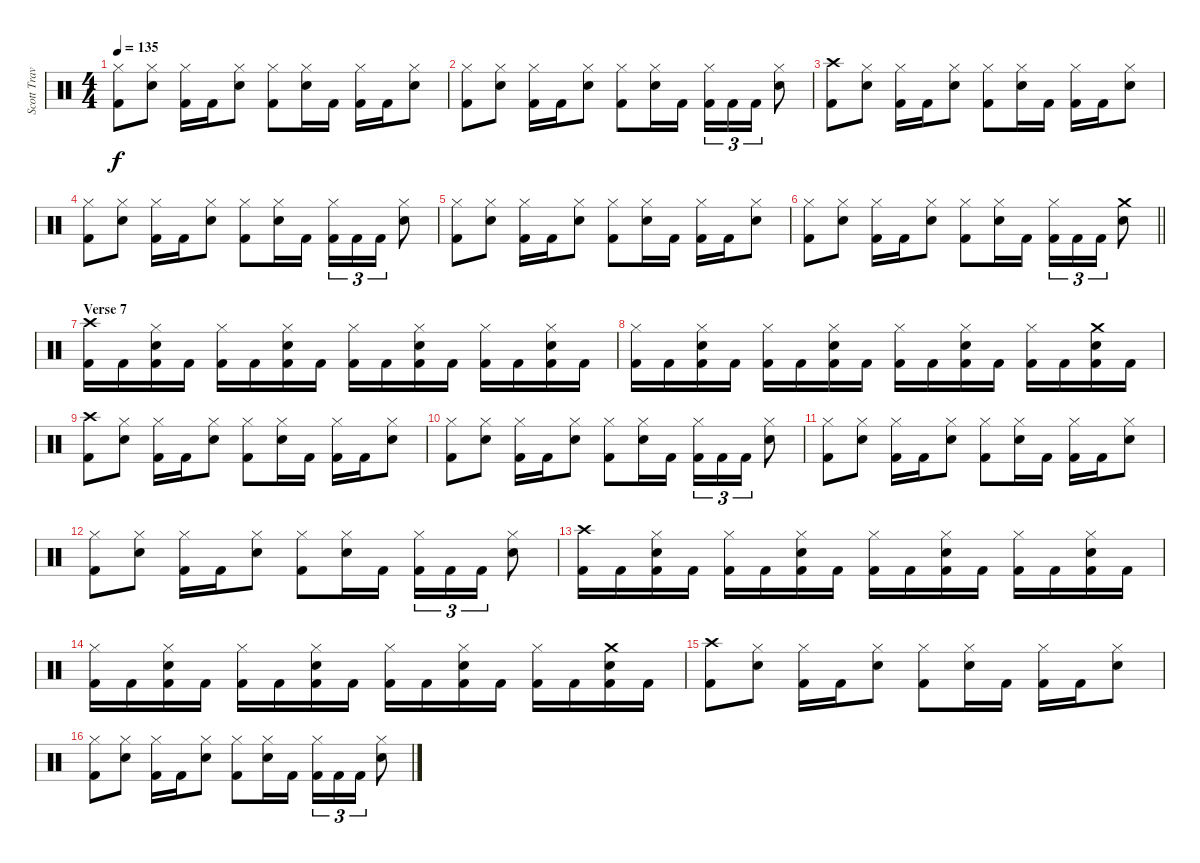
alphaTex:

\track ("Scott Travis" "Scott Trav") {instrument percussion}
\staff {score}
\articulation defaults
\ts (4 4)
\tempo 135
\clef neutral
\ks c
("Hi-Hat (closed)" "Kick (hit) 2").8{dy f} ("Hi-Hat (closed)" "Snare (hit) 2").8 ("Hi-Hat (closed)" "Kick (hit) 2").16 "Kick (hit) 2".16 ("Hi-Hat (closed)" "Snare (hit) 2").8 ("Hi-Hat (closed)" "Kick (hit) 2").8 ("Hi-Hat (closed)" "Snare (hit) 2").16 "Kick (hit) 2".16 ("Hi-Hat (closed)" "Kick (hit) 2").16 "Kick (hit) 2".16 ("Hi-Hat (closed)" "Snare (hit) 2").8 |
("Hi-Hat (closed)" "Kick (hit) 2").8 ("Hi-Hat (closed)" "Snare (hit) 2").8 ("Hi-Hat (closed)" "Kick (hit) 2").16 "Kick (hit) 2".16 ("Hi-Hat (closed)" "Snare (hit) 2").8 ("Hi-Hat (closed)" "Kick (hit) 2").8 ("Hi-Hat (closed)" "Snare (hit) 2").16 "Kick (hit) 2".16 ("Hi-Hat (closed)" "Kick (hit) 2").16{tu (3 2)} "Kick (hit) 2".16{tu (3 2)} "Kick (hit) 2".16{tu (3 2)} ("Hi-Hat (closed)" "Snare (hit) 2").8 |
("Crash high (hit)" "Kick (hit) 2").8 ("Hi-Hat (closed)" "Snare (hit) 2").8 ("Hi-Hat (closed)" "Kick (hit) 2").16 "Kick (hit) 2".16 ("Hi-Hat (closed)" "Snare (hit) 2").8 ("Hi-Hat (closed)" "Kick (hit) 2").8 ("Hi-Hat (closed)" "Snare (hit) 2").16 "Kick (hit) 2".16 ("Hi-Hat (closed)" "Kick (hit) 2").16 "Kick (hit) 2".16 ("Hi-Hat (closed)" "Snare (hit) 2").8 |
("Hi-Hat (closed)" "Kick (hit) 2").8 ("Hi-Hat (closed)" "Snare (hit) 2").8 ("Hi-Hat (closed)" "Kick (hit) 2").16 "Kick (hit) 2".16 ("Hi-Hat (closed)" "Snare (hit) 2").8 ("Hi-Hat (closed)" "Kick (hit) 2").8 ("Hi-Hat (closed)" "Snare (hit) 2").16 "Kick (hit) 2".16 ("Hi-Hat (closed)" "Kick (hit) 2").16{tu (3 2)} "Kick (hit) 2".16{tu (3 2)} "Kick (hit) 2".16{tu (3 2)} ("Hi-Hat (closed)" "Snare (hit) 2").8 |
("Hi-Hat (closed)" "Kick (hit) 2").8 ("Hi-Hat (closed)" "Snare (hit) 2").8 ("Hi-Hat (closed)" "Kick (hit) 2").16 "Kick (hit) 2".16 ("Hi-Hat (closed)" "Snare (hit) 2").8 ("Hi-Hat (closed)" "Kick (hit) 2").8 ("Hi-Hat (closed)" "Snare (hit) 2").16 "Kick (hit) 2".16 ("Hi-Hat (closed)" "Kick (hit) 2").16 "Kick (hit) 2".16 ("Hi-Hat (closed)" "Snare (hit) 2").8 |
\barLineRight lightlight
("Hi-Hat (closed)" "Kick (hit) 2").8 ("Hi-Hat (closed)" "Snare (hit) 2").8 ("Hi-Hat (closed)" "Kick (hit) 2").16 "Kick (hit) 2".16 ("Hi-Hat (closed)" "Snare (hit) 2").8 ("Hi-Hat (closed)" "Kick (hit) 2").8 ("Hi-Hat (closed)" "Snare (hit) 2").16 "Kick (hit) 2".16 ("Hi-Hat (closed)" "Kick (hit) 2").16{tu (3 2)} "Kick (hit) 2".16{tu (3 2)} "Kick (hit) 2".16{tu (3 2)} ("Crash medium (hit)" "Snare (hit) 2").8 |
\section ("" "Verse 7")
("Crash high (hit)" "Kick (hit) 2").16 "Kick (hit) 2".16 ("Hi-Hat (closed)" "Snare (hit) 2" "Kick (hit) 2").16 "Kick (hit) 2".16 ("Hi-Hat (closed)" "Kick (hit) 2").16 "Kick (hit) 2".16 ("Hi-Hat (closed)" "Snare (hit) 2" "Kick (hit) 2").16 "Kick (hit) 2".16 ("Hi-Hat (closed)" "Kick (hit) 2").16 "Kick (hit) 2".16 ("Hi-Hat (closed)" "Snare (hit) 2" "Kick (hit) 2").16 "Kick (hit) 2".16 ("Hi-Hat (closed)" "Kick (hit) 2").16 "Kick (hit) 2".16 ("Hi-Hat (closed)" "Snare (hit) 2" "Kick (hit) 2").16 "Kick (hit) 2".16 |
("Hi-Hat (closed)" "Kick (hit) 2").16 "Kick (hit) 2".16 ("Hi-Hat (closed)" "Snare (hit) 2" "Kick (hit) 2").16 "Kick (hit) 2".16 ("Hi-Hat (closed)" "Kick (hit) 2").16 "Kick (hit) 2".16 ("Hi-Hat (closed)" "Snare (hit) 2" "Kick (hit) 2").16 "Kick (hit) 2".16 ("Hi-Hat (closed)" "Kick (hit) 2").16 "Kick (hit) 2".16 ("Hi-Hat (closed)" "Snare (hit) 2" "Kick (hit) 2").16 "Kick (hit) 2".16 ("Hi-Hat (closed)" "Kick (hit) 2").16 "Kick (hit) 2".16 ("Crash medium (hit)" "Snare (hit) 2" "Kick (hit) 2").16 "Kick (hit) 2".16 |
("Crash high (hit)" "Kick (hit) 2").8 ("Hi-Hat (closed)" "Snare (hit) 2").8 ("Hi-Hat (closed)" "Kick (hit) 2").16 "Kick (hit) 2".16 ("Hi-Hat (closed)" "Snare (hit) 2").8 ("Hi-Hat (closed)" "Kick (hit) 2").8 ("Hi-Hat (closed)" "Snare (hit) 2").16 "Kick (hit) 2".16 ("Hi-Hat (closed)" "Kick (hit) 2").16 "Kick (hit) 2".16 ("Hi-Hat (closed)" "Snare (hit) 2").8 |
("Hi-Hat (closed)" "Kick (hit) 2").8 ("Hi-Hat (closed)" "Snare (hit) 2").8 ("Hi-Hat (closed)" "Kick (hit) 2").16 "Kick (hit) 2".16 ("Hi-Hat (closed)" "Snare (hit) 2").8 ("Hi-Hat (closed)" "Kick (hit) 2").8 ("Hi-Hat (closed)" "Snare (hit) 2").16 "Kick (hit) 2".16 ("Hi-Hat (closed)" "Kick (hit) 2").16{tu (3 2)} "Kick (hit) 2".16{tu (3 2)} "Kick (hit) 2".16{tu (3 2)} ("Hi-Hat (closed)" "Snare (hit) 2").8 |
("Hi-Hat (closed)" "Kick (hit) 2").8 ("Hi-Hat (closed)" "Snare (hit) 2").8 ("Hi-Hat (closed)" "Kick (hit) 2").16 "Kick (hit) 2".16 ("Hi-Hat (closed)" "Snare (hit) 2").8 ("Hi-Hat (closed)" "Kick (hit) 2").8 ("Hi-Hat (closed)" "Snare (hit) 2").16 "Kick (hit) 2".16 ("Hi-Hat (closed)" "Kick (hit) 2").16 "Kick (hit) 2".16 ("Hi-Hat (closed)" "Snare (hit) 2").8 |
("Hi-Hat (closed)" "Kick (hit) 2").8 ("Hi-Hat (closed)" "Snare (hit) 2").8 ("Hi-Hat (closed)" "Kick (hit) 2").16 "Kick (hit) 2".16 ("Hi-Hat (closed)" "Snare (hit) 2").8 ("Hi-Hat (closed)" "Kick (hit) 2").8 ("Hi-Hat (closed)" "Snare (hit) 2").16 "Kick (hit) 2".16 ("Hi-Hat (closed)" "Kick (hit) 2").16{tu (3 2)} "Kick (hit) 2".16{tu (3 2)} "Kick (hit) 2".16{tu (3 2)} ("Hi-Hat (closed)" "Snare (hit) 2").8 |
("Crash high (hit)" "Kick (hit) 2").16 "Kick (hit) 2".16 ("Hi-Hat (closed)" "Snare (hit) 2" "Kick (hit) 2").16 "Kick (hit) 2".16 ("Hi-Hat (closed)" "Kick (hit) 2").16 "Kick (hit) 2".16 ("Hi-Hat (closed)" "Snare (hit) 2" "Kick (hit) 2").16 "Kick (hit) 2".16 ("Hi-Hat (closed)" "Kick (hit) 2").16 "Kick (hit) 2".16 ("Hi-Hat (closed)" "Snare (hit) 2" "Kick (hit) 2").16 "Kick (hit) 2".16 ("Hi-Hat (closed)" "Kick (hit) 2").16 "Kick (hit) 2".16 ("Hi-Hat (closed)" "Snare (hit) 2" "Kick (hit) 2").16 "Kick (hit) 2".16 |
("Hi-Hat (closed)" "Kick (hit) 2").16 "Kick (hit) 2".16 ("Hi-Hat (closed)" "Snare (hit) 2" "Kick (hit) 2").16 "Kick (hit) 2".16 ("Hi-Hat (closed)" "Kick (hit) 2").16 "Kick (hit) 2".16 ("Hi-Hat (closed)" "Snare (hit) 2" "Kick (hit) 2").16 "Kick (hit) 2".16 ("Hi-Hat (closed)" "Kick (hit) 2").16 "Kick (hit) 2".16 ("Hi-Hat (closed)" "Snare (hit) 2" "Kick (hit) 2").16 "Kick (hit) 2".16 ("Hi-Hat (closed)" "Kick (hit) 2").16 "Kick (hit) 2".16 ("Crash medium (hit)" "Snare (hit) 2" "Kick (hit) 2").16 "Kick (hit) 2".16 |
("Crash high (hit)" "Kick (hit) 2").8 ("Hi-Hat (closed)" "Snare (hit) 2").8 ("Hi-Hat (closed)" "Kick (hit) 2").16 "Kick (hit) 2".16 ("Hi-Hat (closed)" "Snare (hit) 2").8 ("Hi-Hat (closed)" "Kick (hit) 2").8 ("Hi-Hat (closed)" "Snare (hit) 2").16 "Kick (hit) 2".16 ("Hi-Hat (closed)" "Kick (hit) 2").16 "Kick (hit) 2".16 ("Hi-Hat (closed)" "Snare (hit) 2").8 |
("Hi-Hat (closed)" "Kick (hit) 2").8 ("Hi-Hat (closed)" "Snare (hit) 2").8 ("Hi-Hat (closed)" "Kick (hit) 2").16 "Kick (hit) 2".16 ("Hi-Hat (closed)" "Snare (hit) 2").8 ("Hi-Hat (closed)" "Kick (hit) 2").8 ("Hi-Hat (closed)" "Snare (hit) 2").16 "Kick (hit) 2".16 ("Hi-Hat (closed)" "Kick (hit) 2").16{tu (3 2)} "Kick (hit) 2".16{tu (3 2)} "Kick (hit) 2".16{tu (3 2)} ("Hi-Hat (closed)" "Snare (hit) 2").8
